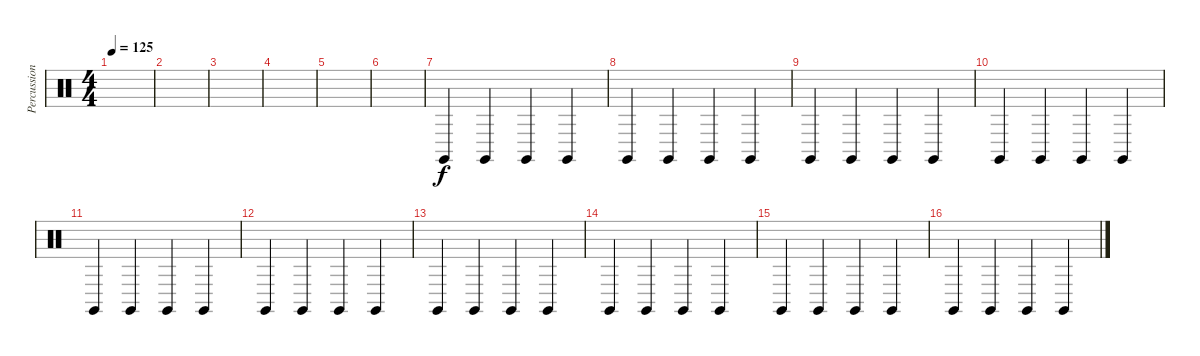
\track ("Percussion" "Percussion") {instrument percussion}
\staff {score}
\articulation defaults
\ts (4 4)
\tempo 125
\clef neutral
\ks c
|
|
|
|
|
|
"Claves (hit)".4 "Claves (hit)".4 "Claves (hit)".4 "Claves (hit)".4 |
"Claves (hit)".4 "Claves (hit)".4 "Claves (hit)".4 "Claves (hit)".4 |
"Claves (hit)".4 "Claves (hit)".4 "Claves (hit)".4 "Claves (hit)".4 |
"Claves (hit)".4 "Claves (hit)".4 "Claves (hit)".4 "Claves (hit)".4 |
"Claves (hit)".4 "Claves (hit)".4 "Claves (hit)".4 "Claves (hit)".4 |
"Claves (hit)".4 "Claves (hit)".4 "Claves (hit)".4 "Claves (hit)".4 |
"Claves (hit)".4 "Claves (hit)".4 "Claves (hit)".4 "Claves (hit)".4 |
"Claves (hit)".4 "Claves (hit)".4 "Claves (hit)".4 "Claves (hit)".4 |
"Claves (hit)".4 "Claves (hit)".4 "Claves (hit)".4 "Claves (hit)".4 |
"Claves (hit)".4 "Claves (hit)".4 "Claves (hit)".4 "Claves (hit)".4
